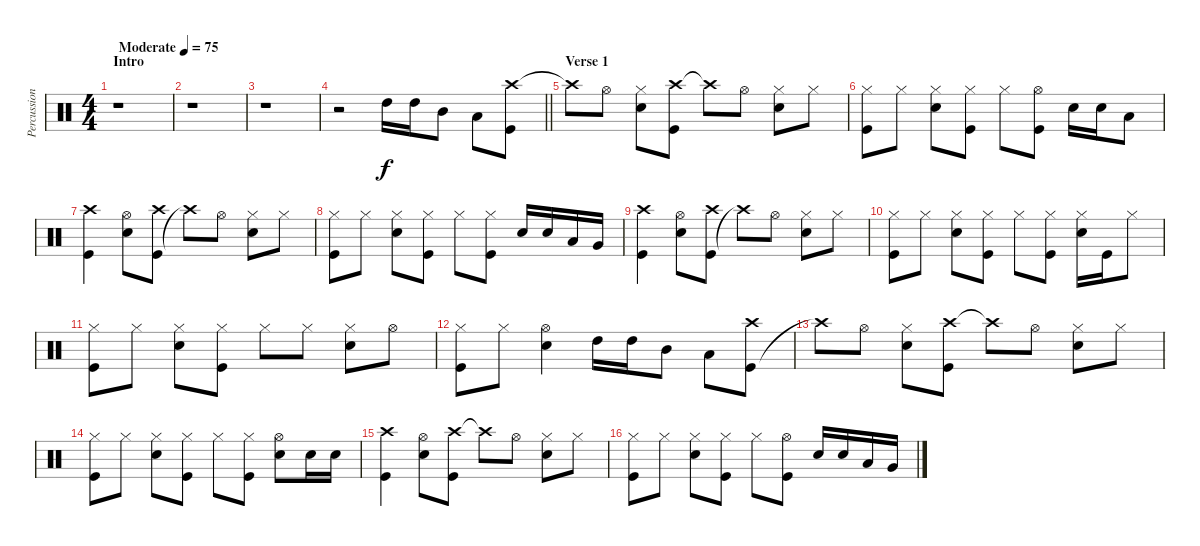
\track ("Percussion 1" "Percussion") {instrument percussion}
\staff {score}
\articulation defaults
\ts (4 4)
\section ("" "Intro")
\tempo (75 "Moderate")
\clef neutral
\ks c
r.1{dy f} |
r.1 |
r.1 |
\barLineRight lightlight
r.2 "High Tom (hit)".16 "High Tom (hit)".16 "Mid Tom (hit)".8 "Low Floor Tom (hit)".8 ("Crash high (hit)" "Kick (hit)").8 |
\section ("" "Verse 1")
"Crash high (hit)"{t}.8 "Hi-Hat (open)".8 ("Hi-Hat (closed)" "Snare (hit) 2").8 ("Crash high (hit)" "Kick (hit)").8 "Crash high (hit)"{t}.8 "Hi-Hat (open)".8 ("Hi-Hat (closed)" "Snare (hit) 2").8 "Hi-Hat (closed)".8 |
("Hi-Hat (closed)" "Kick (hit)").8 "Hi-Hat (closed)".8 ("Hi-Hat (closed)" "Snare (hit) 2").8 ("Hi-Hat (closed)" "Kick (hit)").8 "Hi-Hat (closed)".8 ("Hi-Hat (open)" "Kick (hit)").8 "Snare (hit) 2".16 "Snare (hit) 2".16 "Low Tom (hit)".8 |
("Kick (hit)" "Crash high (hit)").4 ("Hi-Hat (open)" "Snare (hit) 2").8 ("Kick (hit)" "Crash high (hit)").8 "Crash high (hit)"{t}.8 "Hi-Hat (open)".8 ("Hi-Hat (closed)" "Snare (hit) 2").8 "Hi-Hat (closed)".8 |
("Kick (hit)" "Hi-Hat (closed)").8 "Hi-Hat (closed)".8 ("Hi-Hat (closed)" "Snare (hit) 2").8 ("Hi-Hat (closed)" "Kick (hit)").8 "Hi-Hat (closed)".8 ("Hi-Hat (closed)" "Kick (hit)").8 "Snare (hit) 2".16 "Snare (hit) 2".16 "Low Tom (hit)".16 "Very Low Tom (hit)".16 |
("Kick (hit)" "Crash high (hit)").4 ("Hi-Hat (open)" "Snare (hit) 2").8 ("Kick (hit)" "Crash high (hit)").8 "Crash high (hit)"{t}.8 "Hi-Hat (open)".8 ("Hi-Hat (closed)" "Snare (hit) 2").8 "Hi-Hat (closed)".8 |
("Kick (hit)" "Hi-Hat (closed)").8 "Hi-Hat (closed)".8 ("Hi-Hat (closed)" "Snare (hit) 2").8 ("Hi-Hat (closed)" "Kick (hit)").8 "Hi-Hat (closed)".8 ("Hi-Hat (closed)" "Kick (hit)").8 ("Hi-Hat (closed)" "Snare (hit) 2").16 "Kick (hit)".16 "Hi-Hat (closed)".8 |
("Kick (hit)" "Hi-Hat (closed)").8 "Hi-Hat (closed)".8 ("Hi-Hat (closed)" "Snare (hit) 2").8 ("Hi-Hat (closed)" "Kick (hit)").8 "Hi-Hat (closed)".8 "Hi-Hat (closed)".8 ("Hi-Hat (closed)" "Snare (hit) 2").8 "Hi-Hat (open)".8 |
("Kick (hit)" "Hi-Hat (closed)").8 "Hi-Hat (closed)".8 ("Hi-Hat (open)" "Snare (hit) 2").4 "High Tom (hit)".16 "High Tom (hit)".16 "Mid Tom (hit)".8 "Low Tom (hit)".8 ("Kick (hit)" "Crash high (hit)").8 |
"Crash high (hit)"{t}.8 "Hi-Hat (open)".8 ("Hi-Hat (closed)" "Snare (hit) 2").8 ("Crash high (hit)" "Kick (hit)").8 "Crash high (hit)"{t}.8 "Hi-Hat (open)".8 ("Hi-Hat (closed)" "Snare (hit) 2").8 "Hi-Hat (closed)".8 |
("Hi-Hat (closed)" "Kick (hit)").8 "Hi-Hat (closed)".8 ("Hi-Hat (closed)" "Snare (hit) 2").8 ("Hi-Hat (closed)" "Kick (hit)").8 "Hi-Hat (closed)".8 ("Hi-Hat (closed)" "Kick (hit)").8 ("Hi-Hat (open)" "Snare (hit) 2").8 "Snare (hit) 2".16 "Snare (hit) 2".16 |
("Crash high (hit)" "Kick (hit)").4 ("Hi-Hat (open)" "Snare (hit) 2").8 ("Crash high (hit)" "Kick (hit)").8 "Crash high (hit)"{t}.8 "Hi-Hat (open)".8 ("Hi-Hat (closed)" "Snare (hit) 2").8 "Hi-Hat (closed)".8 |
("Hi-Hat (closed)" "Kick (hit)").8 "Hi-Hat (closed)".8 ("Hi-Hat (closed)" "Snare (hit) 2").8 ("Hi-Hat (closed)" "Kick (hit)").8 "Hi-Hat (closed)".8 ("Hi-Hat (open)" "Kick (hit)").8 "Snare (hit) 2".16 "Snare (hit) 2".16 "Low Tom (hit)".16 "Very Low Tom (hit)".16
